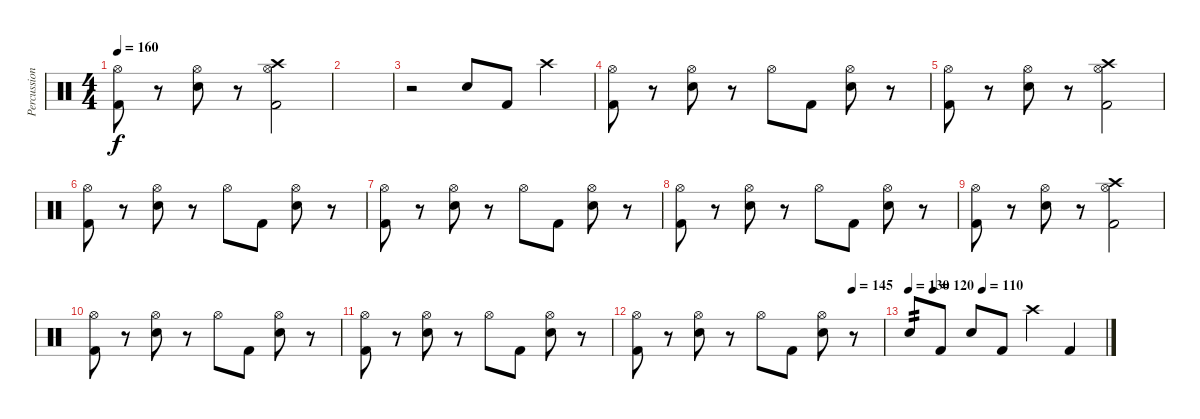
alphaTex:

\track ("Percussion" "Percussion") {instrument percussion}
\staff {score}
\articulation defaults
\ts (4 4)
\tempo 160
\clef neutral
\ks c
("Hi-Hat (open)" "Kick (hit) 2").8{dy f} r.8 ("Hi-Hat (open)" "Snare (hit) 2").8 r.8 ("Crash high (hit)" "Hi-Hat (open)" "Kick (hit) 2").2 |
|
r.2 "Snare (hit) 2".8 "Kick (hit) 2".8 "Crash high (hit)".4 |
("Hi-Hat (open)" "Kick (hit) 2").8 r.8 ("Hi-Hat (open)" "Snare (hit) 2").8 r.8 "Hi-Hat (open)".8 "Kick (hit) 2".8 ("Hi-Hat (open)" "Snare (hit) 2").8 r.8 |
("Hi-Hat (open)" "Kick (hit) 2").8 r.8 ("Hi-Hat (open)" "Snare (hit) 2").8 r.8 ("Crash high (hit)" "Hi-Hat (open)" "Kick (hit) 2").2 |
("Hi-Hat (open)" "Kick (hit) 2").8 r.8 ("Hi-Hat (open)" "Snare (hit) 2").8 r.8 "Hi-Hat (open)".8 "Kick (hit) 2".8 ("Hi-Hat (open)" "Snare (hit) 2").8 r.8 |
("Hi-Hat (open)" "Kick (hit) 2").8 r.8 ("Hi-Hat (open)" "Snare (hit) 2").8 r.8 "Hi-Hat (open)".8 "Kick (hit) 2".8 ("Hi-Hat (open)" "Snare (hit) 2").8 r.8 |
("Hi-Hat (open)" "Kick (hit) 2").8 r.8 ("Hi-Hat (open)" "Snare (hit) 2").8 r.8 "Hi-Hat (open)".8 "Kick (hit) 2".8 ("Hi-Hat (open)" "Snare (hit) 2").8 r.8 |
("Hi-Hat (open)" "Kick (hit) 2").8 r.8 ("Hi-Hat (open)" "Snare (hit) 2").8 r.8 ("Crash high (hit)" "Hi-Hat (open)" "Kick (hit) 2").2 |
("Hi-Hat (open)" "Kick (hit) 2").8 r.8 ("Hi-Hat (open)" "Snare (hit) 2").8 r.8 "Hi-Hat (open)".8 "Kick (hit) 2".8 ("Hi-Hat (open)" "Snare (hit) 2").8 r.8 |
("Hi-Hat (open)" "Kick (hit) 2").8 r.8 ("Hi-Hat (open)" "Snare (hit) 2").8 r.8 "Hi-Hat (open)".8 "Kick (hit) 2".8 ("Hi-Hat (open)" "Snare (hit) 2").8 r.8 |
\tempo (145 0.875)
("Hi-Hat (open)" "Kick (hit) 2").8 r.8 ("Hi-Hat (open)" "Snare (hit) 2").8 r.8 "Hi-Hat (open)".8 "Kick (hit) 2".8 ("Hi-Hat (open)" "Snare (hit) 2").8 r.8 |
\tempo 130
\tempo (120 0.125)
\tempo (110 0.375)
"Snare (hit) 2".8{tp 2} "Kick (hit) 2".8 "Snare (hit) 2".8 "Kick (hit) 2".8 "Crash high (hit)".4 "Kick (hit) 2".4
